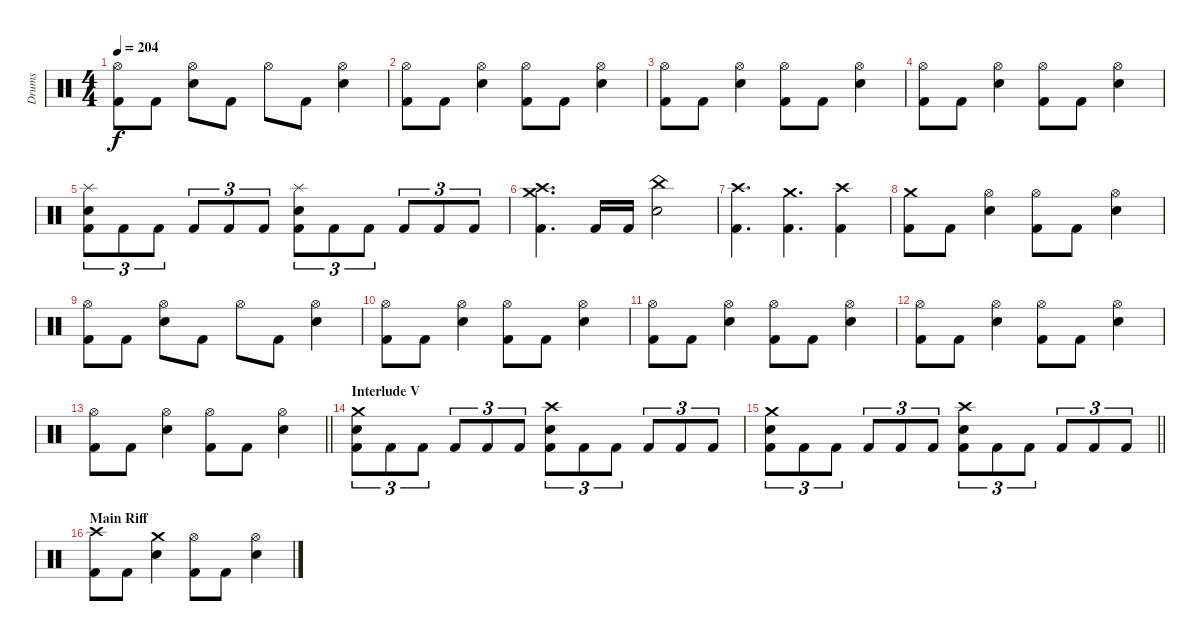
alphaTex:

\track ("Drums" "Drums") {instrument percussion}
\staff {score}
\articulation defaults
\ts (4 4)
\tempo 204
\clef neutral
\ks c
("Hi-Hat (open)" "Kick (hit) 2").8{dy f} "Kick (hit) 2".8 ("Hi-Hat (open)" "Electric Snare (hit)").8 "Kick (hit) 2".8 "Hi-Hat (open)".8 "Kick (hit) 2".8 ("Hi-Hat (open)" "Electric Snare (hit)").4 |
("Hi-Hat (open)" "Kick (hit) 2").8 "Kick (hit) 2".8 ("Hi-Hat (open)" "Electric Snare (hit)").4 ("Hi-Hat (open)" "Kick (hit) 2").8 "Kick (hit) 2".8 ("Hi-Hat (open)" "Electric Snare (hit)").4 |
("Hi-Hat (open)" "Kick (hit) 2").8 "Kick (hit) 2".8 ("Hi-Hat (open)" "Electric Snare (hit)").4 ("Hi-Hat (open)" "Kick (hit) 2").8 "Kick (hit) 2".8 ("Hi-Hat (open)" "Electric Snare (hit)").4 |
("Hi-Hat (open)" "Kick (hit) 2").8 "Kick (hit) 2".8 ("Hi-Hat (open)" "Electric Snare (hit)").4 ("Hi-Hat (open)" "Kick (hit) 2").8 "Kick (hit) 2".8 ("Hi-Hat (open)" "Electric Snare (hit)").4 |
("Splash (hit)" "Electric Snare (hit)" "Kick (hit) 2").8{tu (3 2)} "Kick (hit) 2".8{tu (3 2)} "Kick (hit) 2".8{tu (3 2)} "Kick (hit) 2".8{tu (3 2)} "Kick (hit) 2".8{tu (3 2)} "Kick (hit) 2".8{tu (3 2)} ("Splash (hit)" "Electric Snare (hit)" "Kick (hit) 2").8{tu (3 2)} "Kick (hit) 2".8{tu (3 2)} "Kick (hit) 2".8{tu (3 2)} "Kick (hit) 2".8{tu (3 2)} "Kick (hit) 2".8{tu (3 2)} "Kick (hit) 2".8{tu (3 2)} |
("Crash medium (hit)" "Crash high (hit)" "Kick (hit) 2").4{d} "Kick (hit) 2".16 "Kick (hit) 2".16 ("China (hit)" "Electric Snare (hit)").2 |
("Crash high (hit)" "Kick (hit) 2").4{d} ("Crash medium (hit)" "Kick (hit) 2").4{d} ("Crash high (hit)" "Kick (hit) 2").4 |
("Crash medium (hit)" "Kick (hit) 2").8 "Kick (hit) 2".8 ("Hi-Hat (open)" "Electric Snare (hit)").4 ("Hi-Hat (open)" "Kick (hit) 2").8 "Kick (hit) 2".8 ("Hi-Hat (open)" "Electric Snare (hit)").4 |
("Hi-Hat (open)" "Kick (hit) 2").8 "Kick (hit) 2".8 ("Hi-Hat (open)" "Electric Snare (hit)").8 "Kick (hit) 2".8 "Hi-Hat (open)".8 "Kick (hit) 2".8 ("Hi-Hat (open)" "Electric Snare (hit)").4 |
("Hi-Hat (open)" "Kick (hit) 2").8 "Kick (hit) 2".8 ("Hi-Hat (open)" "Electric Snare (hit)").4 ("Hi-Hat (open)" "Kick (hit) 2").8 "Kick (hit) 2".8 ("Hi-Hat (open)" "Electric Snare (hit)").4 |
("Hi-Hat (open)" "Kick (hit) 2").8 "Kick (hit) 2".8 ("Hi-Hat (open)" "Electric Snare (hit)").4 ("Hi-Hat (open)" "Kick (hit) 2").8 "Kick (hit) 2".8 ("Hi-Hat (open)" "Electric Snare (hit)").4 |
("Hi-Hat (open)" "Kick (hit) 2").8 "Kick (hit) 2".8 ("Hi-Hat (open)" "Electric Snare (hit)").4 ("Hi-Hat (open)" "Kick (hit) 2").8 "Kick (hit) 2".8 ("Hi-Hat (open)" "Electric Snare (hit)").4 |
\barLineRight lightlight
("Hi-Hat (open)" "Kick (hit) 2").8 "Kick (hit) 2".8 ("Hi-Hat (open)" "Electric Snare (hit)").4 ("Hi-Hat (open)" "Kick (hit) 2").8 "Kick (hit) 2".8 ("Hi-Hat (open)" "Electric Snare (hit)").4 |
\section ("" "Interlude V")
("Crash medium (hit)" "Electric Snare (hit)" "Kick (hit) 2").8{tu (3 2)} "Kick (hit) 2".8{tu (3 2)} "Kick (hit) 2".8{tu (3 2)} "Kick (hit) 2".8{tu (3 2)} "Kick (hit) 2".8{tu (3 2)} "Kick (hit) 2".8{tu (3 2)} ("Crash high (hit)" "Electric Snare (hit)" "Kick (hit) 2").8{tu (3 2)} "Kick (hit) 2".8{tu (3 2)} "Kick (hit) 2".8{tu (3 2)} "Kick (hit) 2".8{tu (3 2)} "Kick (hit) 2".8{tu (3 2)} "Kick (hit) 2".8{tu (3 2)} |
\barLineRight lightlight
("Crash medium (hit)" "Electric Snare (hit)" "Kick (hit) 2").8{tu (3 2)} "Kick (hit) 2".8{tu (3 2)} "Kick (hit) 2".8{tu (3 2)} "Kick (hit) 2".8{tu (3 2)} "Kick (hit) 2".8{tu (3 2)} "Kick (hit) 2".8{tu (3 2)} ("Crash high (hit)" "Electric Snare (hit)" "Kick (hit) 2").8{tu (3 2)} "Kick (hit) 2".8{tu (3 2)} "Kick (hit) 2".8{tu (3 2)} "Kick (hit) 2".8{tu (3 2)} "Kick (hit) 2".8{tu (3 2)} "Kick (hit) 2".8{tu (3 2)} |
\section ("" "Main Riff")
("Crash high (hit)" "Kick (hit) 2").8 "Kick (hit) 2".8 ("Crash medium (hit)" "Electric Snare (hit)").4 ("Hi-Hat (open)" "Kick (hit) 2").8 "Kick (hit) 2".8 ("Hi-Hat (open)" "Electric Snare (hit)").4
